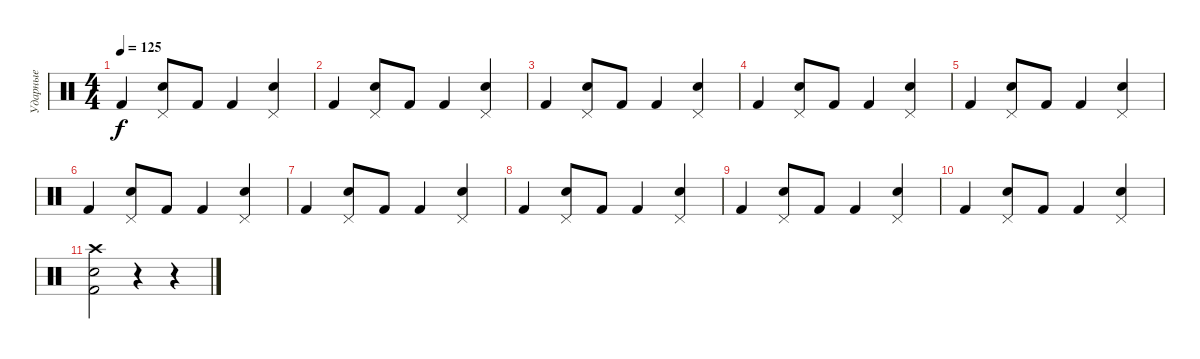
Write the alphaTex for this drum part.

\track ("Ударные" "Ударные") {instrument percussion}
\staff {score}
\articulation defaults
\ts (4 4)
\tempo 125
\clef neutral
\ks c "Kick (hit) 2".4{dy f}
("Snare (hit) 2" "Pedal Hi-Hat (hit)").8 "Kick (hit) 2".8 "Kick (hit) 2".4 ("Snare (hit) 2" "Pedal Hi-Hat (hit)").4 |
"Kick (hit) 2".4 ("Snare (hit) 2" "Pedal Hi-Hat (hit)").8 "Kick (hit) 2".8 "Kick (hit) 2".4 ("Snare (hit) 2" "Pedal Hi-Hat (hit)").4 |
"Kick (hit) 2".4 ("Snare (hit) 2" "Pedal Hi-Hat (hit)").8 "Kick (hit) 2".8 "Kick (hit) 2".4 ("Snare (hit) 2" "Pedal Hi-Hat (hit)").4 |
"Kick (hit) 2".4 ("Snare (hit) 2" "Pedal Hi-Hat (hit)").8 "Kick (hit) 2".8 "Kick (hit) 2".4 ("Snare (hit) 2" "Pedal Hi-Hat (hit)").4 |
"Kick (hit) 2".4 ("Snare (hit) 2" "Pedal Hi-Hat (hit)").8 "Kick (hit) 2".8 "Kick (hit) 2".4 ("Snare (hit) 2" "Pedal Hi-Hat (hit)").4 |
"Kick (hit) 2".4 ("Snare (hit) 2" "Pedal Hi-Hat (hit)").8 "Kick (hit) 2".8 "Kick (hit) 2".4 ("Snare (hit) 2" "Pedal Hi-Hat (hit)").4 |
"Kick (hit) 2".4 ("Snare (hit) 2" "Pedal Hi-Hat (hit)").8 "Kick (hit) 2".8 "Kick (hit) 2".4 ("Snare (hit) 2" "Pedal Hi-Hat (hit)").4 |
"Kick (hit) 2".4 ("Snare (hit) 2" "Pedal Hi-Hat (hit)").8 "Kick (hit) 2".8 "Kick (hit) 2".4 ("Snare (hit) 2" "Pedal Hi-Hat (hit)").4 |
"Kick (hit) 2".4 ("Snare (hit) 2" "Pedal Hi-Hat (hit)").8 "Kick (hit) 2".8 "Kick (hit) 2".4 ("Snare (hit) 2" "Pedal Hi-Hat (hit)").4 |
"Kick (hit) 2".4 ("Snare (hit) 2" "Pedal Hi-Hat (hit)").8 "Kick (hit) 2".8 "Kick (hit) 2".4 ("Snare (hit) 2" "Pedal Hi-Hat (hit)").4 |
("Electric Snare (hit)" "Kick (hit) 2" "Crash high (hit)").2 r.4 r.4
